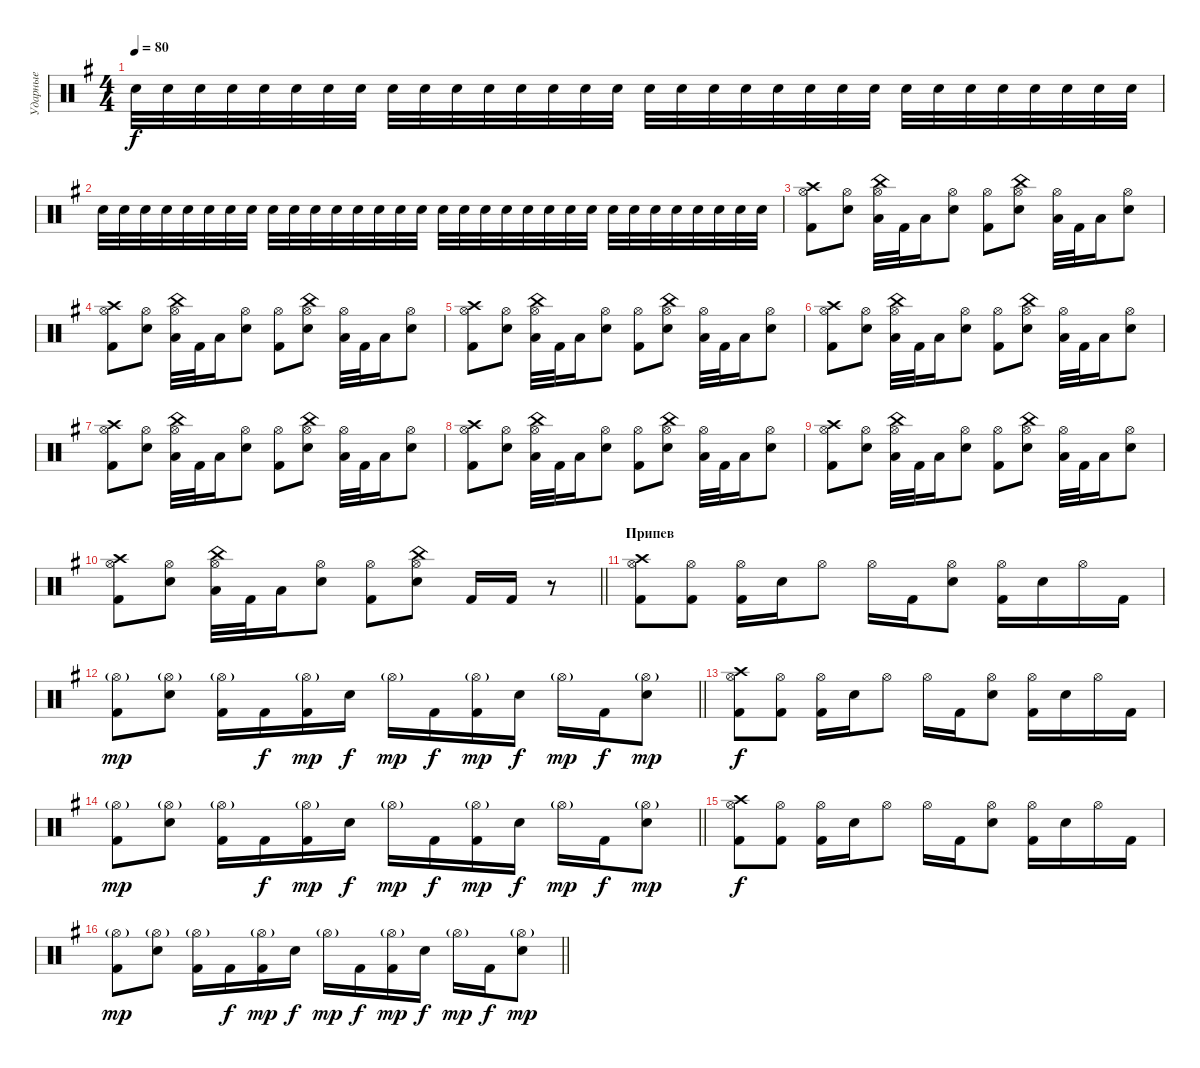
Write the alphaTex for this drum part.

\track ("Ударные" "Ударные") {instrument percussion}
\staff {score}
\articulation defaults
\ts (4 4)
\tempo 80
\clef neutral
\ks eminor "Electric Snare (hit)".32{dy f volume 16} "Electric Snare (hit)".32 "Electric Snare (hit)".32 "Electric Snare (hit)".32 "Electric Snare (hit)".32 "Electric Snare (hit)".32 "Electric Snare (hit)".32 "Electric Snare (hit)".32 "Electric Snare (hit)".32 "Electric Snare (hit)".32 "Electric Snare (hit)".32 "Electric Snare (hit)".32 "Electric Snare (hit)".32 "Electric Snare (hit)".32 "Electric Snare (hit)".32 "Electric Snare (hit)".32 "Electric Snare (hit)".32 "Electric Snare (hit)".32 "Electric Snare (hit)".32 "Electric Snare (hit)".32 "Electric Snare (hit)".32 "Electric Snare (hit)".32 "Electric Snare (hit)".32 "Electric Snare (hit)".32 "Electric Snare (hit)".32 "Electric Snare (hit)".32 "Electric Snare (hit)".32 "Electric Snare (hit)".32 "Electric Snare (hit)".32 "Electric Snare (hit)".32 "Electric Snare (hit)".32 "Electric Snare (hit)".32
|
"Electric Snare (hit)".32 "Electric Snare (hit)".32 "Electric Snare (hit)".32 "Electric Snare (hit)".32 "Electric Snare (hit)".32 "Electric Snare (hit)".32 "Electric Snare (hit)".32 "Electric Snare (hit)".32 "Electric Snare (hit)".32 "Electric Snare (hit)".32 "Electric Snare (hit)".32 "Electric Snare (hit)".32 "Electric Snare (hit)".32 "Electric Snare (hit)".32 "Electric Snare (hit)".32 "Electric Snare (hit)".32 "Electric Snare (hit)".32 "Electric Snare (hit)".32 "Electric Snare (hit)".32 "Electric Snare (hit)".32 "Electric Snare (hit)".32 "Electric Snare (hit)".32 "Electric Snare (hit)".32 "Electric Snare (hit)".32 "Electric Snare (hit)".32 "Electric Snare (hit)".32 "Electric Snare (hit)".32 "Electric Snare (hit)".32 "Electric Snare (hit)".32 "Electric Snare (hit)".32 "Electric Snare (hit)".32 "Electric Snare (hit)".32 |
("Crash high (hit)" "Hi-Hat (open)" "Kick (hit) 2").8 ("Hi-Hat (open)" "Electric Snare (hit)").8 ("China (hit)" "Hi-Hat (open)" "Low Tom (hit)").32 "Kick (hit) 2".32 "Low Tom (hit)".16 ("Hi-Hat (open)" "Electric Snare (hit)").8 ("Hi-Hat (open)" "Kick (hit) 2").8 ("China (hit)" "Hi-Hat (open)" "Electric Snare (hit)").8 ("Hi-Hat (open)" "Low Tom (hit)").32 "Kick (hit) 2".32 "Low Tom (hit)".16 ("Hi-Hat (open)" "Electric Snare (hit)").8 |
("Crash high (hit)" "Hi-Hat (open)" "Kick (hit) 2").8 ("Hi-Hat (open)" "Electric Snare (hit)").8 ("China (hit)" "Hi-Hat (open)" "Low Tom (hit)").32 "Kick (hit) 2".32 "Low Tom (hit)".16 ("Hi-Hat (open)" "Electric Snare (hit)").8 ("Hi-Hat (open)" "Kick (hit) 2").8 ("China (hit)" "Hi-Hat (open)" "Electric Snare (hit)").8 ("Hi-Hat (open)" "Low Tom (hit)").32 "Kick (hit) 2".32 "Low Tom (hit)".16 ("Hi-Hat (open)" "Electric Snare (hit)").8 |
("Crash high (hit)" "Hi-Hat (open)" "Kick (hit) 2").8 ("Hi-Hat (open)" "Electric Snare (hit)").8 ("China (hit)" "Hi-Hat (open)" "Low Tom (hit)").32 "Kick (hit) 2".32 "Low Tom (hit)".16 ("Hi-Hat (open)" "Electric Snare (hit)").8 ("Hi-Hat (open)" "Kick (hit) 2").8 ("China (hit)" "Hi-Hat (open)" "Electric Snare (hit)").8 ("Hi-Hat (open)" "Low Tom (hit)").32 "Kick (hit) 2".32 "Low Tom (hit)".16 ("Hi-Hat (open)" "Electric Snare (hit)").8 |
("Crash high (hit)" "Hi-Hat (open)" "Kick (hit) 2").8 ("Hi-Hat (open)" "Electric Snare (hit)").8 ("China (hit)" "Hi-Hat (open)" "Low Tom (hit)").32 "Kick (hit) 2".32 "Low Tom (hit)".16 ("Hi-Hat (open)" "Electric Snare (hit)").8 ("Hi-Hat (open)" "Kick (hit) 2").8 ("China (hit)" "Hi-Hat (open)" "Electric Snare (hit)").8 ("Hi-Hat (open)" "Low Tom (hit)").32 "Kick (hit) 2".32 "Low Tom (hit)".16 ("Hi-Hat (open)" "Electric Snare (hit)").8 |
("Crash high (hit)" "Hi-Hat (open)" "Kick (hit) 2").8 ("Hi-Hat (open)" "Electric Snare (hit)").8 ("China (hit)" "Hi-Hat (open)" "Low Tom (hit)").32 "Kick (hit) 2".32 "Low Tom (hit)".16 ("Hi-Hat (open)" "Electric Snare (hit)").8 ("Hi-Hat (open)" "Kick (hit) 2").8 ("China (hit)" "Hi-Hat (open)" "Electric Snare (hit)").8 ("Hi-Hat (open)" "Low Tom (hit)").32 "Kick (hit) 2".32 "Low Tom (hit)".16 ("Hi-Hat (open)" "Electric Snare (hit)").8 |
("Crash high (hit)" "Hi-Hat (open)" "Kick (hit) 2").8 ("Hi-Hat (open)" "Electric Snare (hit)").8 ("China (hit)" "Hi-Hat (open)" "Low Tom (hit)").32 "Kick (hit) 2".32 "Low Tom (hit)".16 ("Hi-Hat (open)" "Electric Snare (hit)").8 ("Hi-Hat (open)" "Kick (hit) 2").8 ("China (hit)" "Hi-Hat (open)" "Electric Snare (hit)").8 ("Hi-Hat (open)" "Low Tom (hit)").32 "Kick (hit) 2".32 "Low Tom (hit)".16 ("Hi-Hat (open)" "Electric Snare (hit)").8 |
("Crash high (hit)" "Hi-Hat (open)" "Kick (hit) 2").8 ("Hi-Hat (open)" "Electric Snare (hit)").8 ("China (hit)" "Hi-Hat (open)" "Low Tom (hit)").32 "Kick (hit) 2".32 "Low Tom (hit)".16 ("Hi-Hat (open)" "Electric Snare (hit)").8 ("Hi-Hat (open)" "Kick (hit) 2").8 ("China (hit)" "Hi-Hat (open)" "Electric Snare (hit)").8 ("Hi-Hat (open)" "Low Tom (hit)").32 "Kick (hit) 2".32 "Low Tom (hit)".16 ("Hi-Hat (open)" "Electric Snare (hit)").8 |
\barLineRight lightlight
("Crash high (hit)" "Hi-Hat (open)" "Kick (hit) 2").8 ("Hi-Hat (open)" "Electric Snare (hit)").8 ("China (hit)" "Hi-Hat (open)" "Low Tom (hit)").32 "Kick (hit) 2".32 "Low Tom (hit)".16 ("Hi-Hat (open)" "Electric Snare (hit)").8 ("Hi-Hat (open)" "Kick (hit) 2").8 ("China (hit)" "Hi-Hat (open)" "Electric Snare (hit)").8 "Kick (hit) 2".16 "Kick (hit) 2".16 r.8 |
\section ("" "Припев")
("Crash high (hit)" "Hi-Hat (open)" "Kick (hit) 2").8 ("Hi-Hat (open)" "Kick (hit) 2").8 ("Hi-Hat (open)" "Kick (hit) 2").16 "Electric Snare (hit)".16 "Hi-Hat (open)".8 "Hi-Hat (open)".16 "Kick (hit) 2".16 ("Hi-Hat (open)" "Electric Snare (hit)").8 ("Hi-Hat (open)" "Kick (hit) 2").16 "Electric Snare (hit)".16 "Hi-Hat (open)".16 "Kick (hit) 2".16 |
\barLineRight lightlight
("Hi-Hat (open)"{g} "Kick (hit) 2").8{dy mp} ("Hi-Hat (open)"{g} "Electric Snare (hit)").8 ("Hi-Hat (open)"{g} "Kick (hit) 2").16 "Kick (hit) 2".16{dy f} ("Hi-Hat (open)"{g} "Kick (hit) 2").16{dy mp} "Electric Snare (hit)".16{dy f} "Hi-Hat (open)"{g}.16{dy mp} "Kick (hit) 2".16{dy f} ("Hi-Hat (open)"{g} "Kick (hit) 2").16{dy mp} "Electric Snare (hit)".16{dy f} "Hi-Hat (open)"{g}.16{dy mp} "Kick (hit) 2".16{dy f} ("Hi-Hat (open)"{g} "Electric Snare (hit)").8{dy mp} |
("Crash high (hit)" "Hi-Hat (open)" "Kick (hit) 2").8{dy f} ("Hi-Hat (open)" "Kick (hit) 2").8 ("Hi-Hat (open)" "Kick (hit) 2").16 "Electric Snare (hit)".16 "Hi-Hat (open)".8 "Hi-Hat (open)".16 "Kick (hit) 2".16 ("Hi-Hat (open)" "Electric Snare (hit)").8 ("Hi-Hat (open)" "Kick (hit) 2").16 "Electric Snare (hit)".16 "Hi-Hat (open)".16 "Kick (hit) 2".16 |
\barLineRight lightlight
("Hi-Hat (open)"{g} "Kick (hit) 2").8{dy mp} ("Hi-Hat (open)"{g} "Electric Snare (hit)").8 ("Hi-Hat (open)"{g} "Kick (hit) 2").16 "Kick (hit) 2".16{dy f} ("Hi-Hat (open)"{g} "Kick (hit) 2").16{dy mp} "Electric Snare (hit)".16{dy f} "Hi-Hat (open)"{g}.16{dy mp} "Kick (hit) 2".16{dy f} ("Hi-Hat (open)"{g} "Kick (hit) 2").16{dy mp} "Electric Snare (hit)".16{dy f} "Hi-Hat (open)"{g}.16{dy mp} "Kick (hit) 2".16{dy f} ("Hi-Hat (open)"{g} "Electric Snare (hit)").8{dy mp} |
("Crash high (hit)" "Hi-Hat (open)" "Kick (hit) 2").8{dy f} ("Hi-Hat (open)" "Kick (hit) 2").8 ("Hi-Hat (open)" "Kick (hit) 2").16 "Electric Snare (hit)".16 "Hi-Hat (open)".8 "Hi-Hat (open)".16 "Kick (hit) 2".16 ("Hi-Hat (open)" "Electric Snare (hit)").8 ("Hi-Hat (open)" "Kick (hit) 2").16 "Electric Snare (hit)".16 "Hi-Hat (open)".16 "Kick (hit) 2".16 |
\barLineRight lightlight
("Hi-Hat (open)"{g} "Kick (hit) 2").8{dy mp} ("Hi-Hat (open)"{g} "Electric Snare (hit)").8 ("Hi-Hat (open)"{g} "Kick (hit) 2").16 "Kick (hit) 2".16{dy f} ("Hi-Hat (open)"{g} "Kick (hit) 2").16{dy mp} "Electric Snare (hit)".16{dy f} "Hi-Hat (open)"{g}.16{dy mp} "Kick (hit) 2".16{dy f} ("Hi-Hat (open)"{g} "Kick (hit) 2").16{dy mp} "Electric Snare (hit)".16{dy f} "Hi-Hat (open)"{g}.16{dy mp} "Kick (hit) 2".16{dy f} ("Hi-Hat (open)"{g} "Electric Snare (hit)").8{dy mp}
